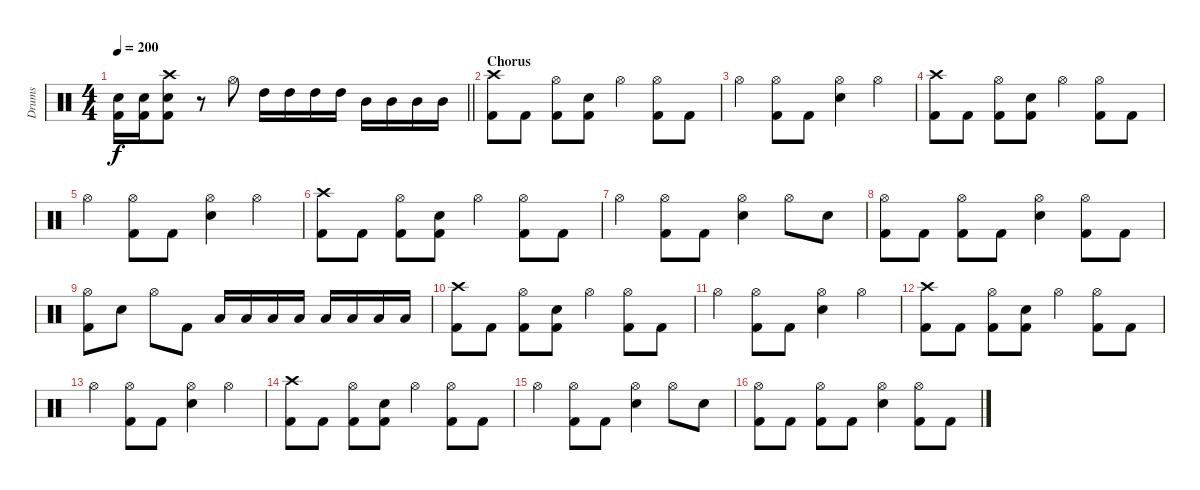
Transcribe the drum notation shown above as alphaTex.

\track ("Drums" "Drums") {instrument percussion}
\staff {score}
\articulation defaults
\ts (4 4)
\tempo 200
\clef neutral
\barLineRight lightlight
\ks c
("Snare (hit) 2" "Kick (hit) 2").16{dy f} ("Snare (hit) 2" "Kick (hit) 2").16 ("Crash high (hit)" "Snare (hit) 2" "Kick (hit) 2").8 r.8 "Hi-Hat (open)".8 "High Tom (hit)".16 "High Tom (hit)".16 "High Tom (hit)".16 "High Tom (hit)".16 "Mid Tom (hit)".16 "Mid Tom (hit)".16 "Mid Tom (hit)".16 "Mid Tom (hit)".16 |
\section ("" "Chorus")
("Crash high (hit)" "Kick (hit) 2").8 "Kick (hit) 2".8 ("Hi-Hat (open)" "Kick (hit) 2").8 ("Snare (hit) 2" "Kick (hit) 2").8 "Hi-Hat (open)".4 ("Hi-Hat (open)" "Kick (hit) 2").8 "Kick (hit) 2".8 |
"Hi-Hat (open)".4 ("Hi-Hat (open)" "Kick (hit) 2").8 "Kick (hit) 2".8 ("Hi-Hat (open)" "Snare (hit) 2").4 "Hi-Hat (open)".4 |
("Crash high (hit)" "Kick (hit) 2").8 "Kick (hit) 2".8 ("Hi-Hat (open)" "Kick (hit) 2").8 ("Snare (hit) 2" "Kick (hit) 2").8 "Hi-Hat (open)".4 ("Hi-Hat (open)" "Kick (hit) 2").8 "Kick (hit) 2".8 |
"Hi-Hat (open)".4 ("Hi-Hat (open)" "Kick (hit) 2").8 "Kick (hit) 2".8 ("Hi-Hat (open)" "Snare (hit) 2").4 "Hi-Hat (open)".4 |
("Crash high (hit)" "Kick (hit) 2").8 "Kick (hit) 2".8 ("Hi-Hat (open)" "Kick (hit) 2").8 ("Snare (hit) 2" "Kick (hit) 2").8 "Hi-Hat (open)".4 ("Hi-Hat (open)" "Kick (hit) 2").8 "Kick (hit) 2".8 |
"Hi-Hat (open)".4 ("Hi-Hat (open)" "Kick (hit) 2").8 "Kick (hit) 2".8 ("Hi-Hat (open)" "Snare (hit) 2").4 "Hi-Hat (open)".8 "Snare (hit) 2".8 |
("Hi-Hat (open)" "Kick (hit) 2").8 "Kick (hit) 2".8 ("Hi-Hat (open)" "Kick (hit) 2").8 "Kick (hit) 2".8 ("Hi-Hat (open)" "Snare (hit) 2").4 ("Hi-Hat (open)" "Kick (hit) 2").8 "Kick (hit) 2".8 |
("Hi-Hat (open)" "Kick (hit) 2").8 "Snare (hit) 2".8 "Hi-Hat (open)".8 "Kick (hit) 2".8 "Low Tom (hit)".16 "Low Tom (hit)".16 "Low Tom (hit)".16 "Low Tom (hit)".16 "Low Floor Tom (hit)".16 "Low Floor Tom (hit)".16 "Low Floor Tom (hit)".16 "Low Floor Tom (hit)".16 |
("Crash high (hit)" "Kick (hit) 2").8 "Kick (hit) 2".8 ("Hi-Hat (open)" "Kick (hit) 2").8 ("Snare (hit) 2" "Kick (hit) 2").8 "Hi-Hat (open)".4 ("Hi-Hat (open)" "Kick (hit) 2").8 "Kick (hit) 2".8 |
"Hi-Hat (open)".4 ("Hi-Hat (open)" "Kick (hit) 2").8 "Kick (hit) 2".8 ("Hi-Hat (open)" "Snare (hit) 2").4 "Hi-Hat (open)".4 |
("Crash high (hit)" "Kick (hit) 2").8 "Kick (hit) 2".8 ("Hi-Hat (open)" "Kick (hit) 2").8 ("Snare (hit) 2" "Kick (hit) 2").8 "Hi-Hat (open)".4 ("Hi-Hat (open)" "Kick (hit) 2").8 "Kick (hit) 2".8 |
"Hi-Hat (open)".4 ("Hi-Hat (open)" "Kick (hit) 2").8 "Kick (hit) 2".8 ("Hi-Hat (open)" "Snare (hit) 2").4 "Hi-Hat (open)".4 |
("Crash high (hit)" "Kick (hit) 2").8 "Kick (hit) 2".8 ("Hi-Hat (open)" "Kick (hit) 2").8 ("Snare (hit) 2" "Kick (hit) 2").8 "Hi-Hat (open)".4 ("Hi-Hat (open)" "Kick (hit) 2").8 "Kick (hit) 2".8 |
"Hi-Hat (open)".4 ("Hi-Hat (open)" "Kick (hit) 2").8 "Kick (hit) 2".8 ("Hi-Hat (open)" "Snare (hit) 2").4 "Hi-Hat (open)".8 "Snare (hit) 2".8 |
("Hi-Hat (open)" "Kick (hit) 2").8 "Kick (hit) 2".8 ("Hi-Hat (open)" "Kick (hit) 2").8 "Kick (hit) 2".8 ("Hi-Hat (open)" "Snare (hit) 2").4 ("Hi-Hat (open)" "Kick (hit) 2").8 "Kick (hit) 2".8
